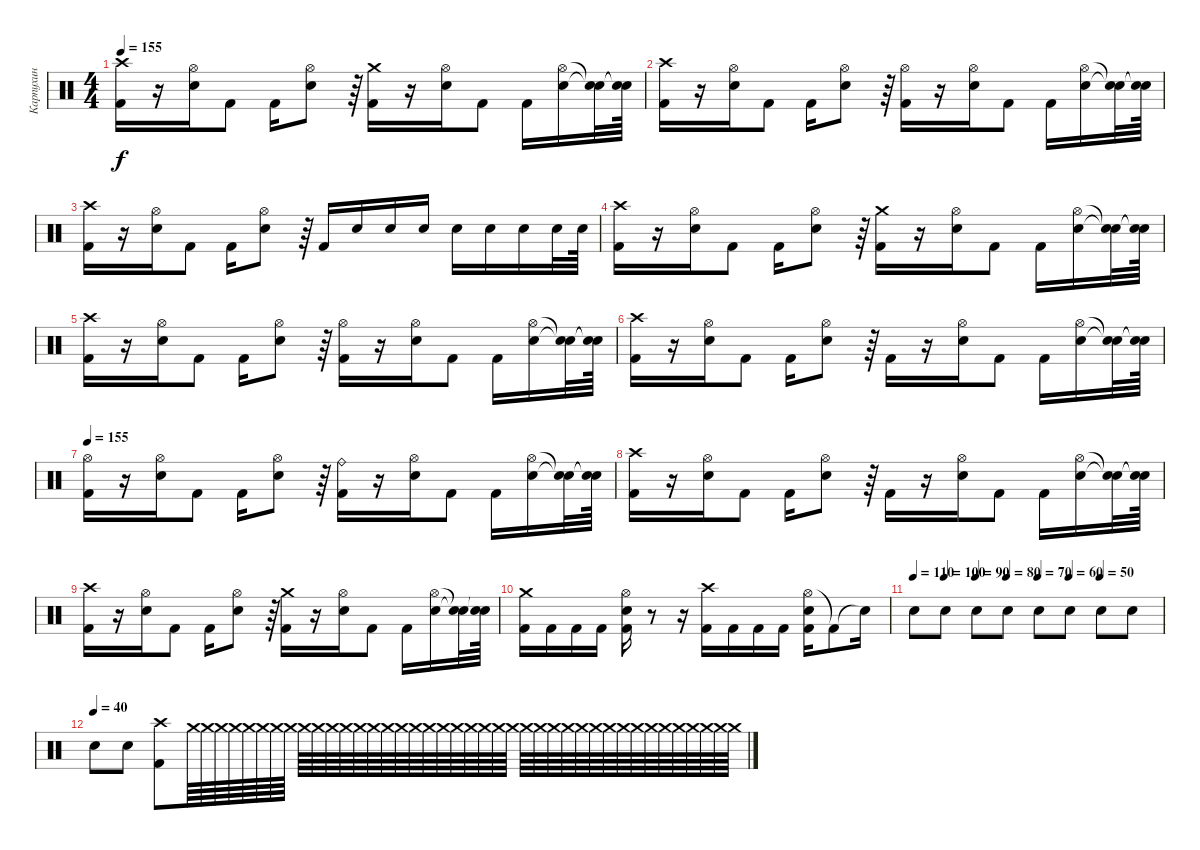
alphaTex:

\track ("Карпухин" "Карпухин") {instrument percussion}
\staff {score}
\articulation defaults
\ts (4 4)
\tempo 155
\clef neutral
\ks c
("Kick (hit) 2" "Crash high (hit)").16{dy f} r.16 ("Electric Snare (hit)" "Hi-Hat (open)").16 "Kick (hit) 2".8 "Kick (hit) 2".16 ("Electric Snare (hit)" "Hi-Hat (open)").8 r.64 ("Crash medium (hit)" "Kick (hit) 2").16 r.16 ("Electric Snare (hit)" "Hi-Hat (open)").16 "Kick (hit) 2".8 "Kick (hit) 2".16 ("Electric Snare (hit)" "Hi-Hat (open)").16 ("Snare (hit)"{t} "Snare (hit)"{t}).32 ("Snare (hit)"{t} "Snare (hit)"{t}).64 |
("Kick (hit) 2" "Crash high (hit)").16 r.16 ("Electric Snare (hit)" "Hi-Hat (open)").16 "Kick (hit) 2".8 "Kick (hit) 2".16 ("Electric Snare (hit)" "Hi-Hat (open)").8 r.64 ("Hi-Hat (open)" "Kick (hit) 2").16 r.16 ("Electric Snare (hit)" "Hi-Hat (open)").16 "Kick (hit) 2".8 "Kick (hit) 2".16 ("Electric Snare (hit)" "Hi-Hat (open)").16 ("Snare (hit)"{t} "Snare (hit)"{t}).32 ("Snare (hit)"{t} "Snare (hit)"{t}).64 |
("Kick (hit) 2" "Crash high (hit)").16 r.16 ("Electric Snare (hit)" "Hi-Hat (open)").16 "Kick (hit) 2".8 "Kick (hit) 2".16 ("Electric Snare (hit)" "Hi-Hat (open)").8 r.64 "Kick (hit) 2".16 "Electric Snare (hit)".16 "Electric Snare (hit)".16 "Electric Snare (hit)".16 "Electric Snare (hit)".16 "Electric Snare (hit)".16 "Electric Snare (hit)".16 "Electric Snare (hit)".32 "Electric Snare (hit)".64 |
("Kick (hit) 2" "Crash high (hit)").16 r.16 ("Electric Snare (hit)" "Hi-Hat (open)").16 "Kick (hit) 2".8 "Kick (hit) 2".16 ("Electric Snare (hit)" "Hi-Hat (open)").8 r.64 ("Crash medium (hit)" "Kick (hit) 2").16 r.16 ("Electric Snare (hit)" "Hi-Hat (open)").16 "Kick (hit) 2".8 "Kick (hit) 2".16 ("Electric Snare (hit)" "Hi-Hat (open)").16 ("Snare (hit)"{t} "Snare (hit)"{t}).32 ("Snare (hit)"{t} "Snare (hit)"{t}).64 |
("Kick (hit) 2" "Crash high (hit)").16 r.16 ("Electric Snare (hit)" "Hi-Hat (open)").16 "Kick (hit) 2".8 "Kick (hit) 2".16 ("Electric Snare (hit)" "Hi-Hat (open)").8 r.64 ("Hi-Hat (open)" "Kick (hit) 2").16 r.16 ("Electric Snare (hit)" "Hi-Hat (open)").16 "Kick (hit) 2".8 "Kick (hit) 2".16 ("Electric Snare (hit)" "Hi-Hat (open)").16 ("Snare (hit)"{t} "Snare (hit)"{t}).32 ("Snare (hit)"{t} "Snare (hit)"{t}).64 |
("Kick (hit) 2" "Crash high (hit)").16 r.16 ("Electric Snare (hit)" "Hi-Hat (open)").16 "Kick (hit) 2".8 "Kick (hit) 2".16 ("Electric Snare (hit)" "Hi-Hat (open)").8 r.64 "Kick (hit) 2".16 r.16 ("Electric Snare (hit)" "Hi-Hat (open)").16 "Kick (hit) 2".8 "Kick (hit) 2".16 ("Electric Snare (hit)" "Hi-Hat (open)").16 ("Snare (hit)"{t} "Snare (hit)"{t}).32 ("Snare (hit)"{t} "Snare (hit)"{t}).64 |
\tempo 155
("Kick (hit) 2" "Hi-Hat (open)").16 r.16 ("Electric Snare (hit)" "Hi-Hat (open)").16 "Kick (hit) 2".8 "Kick (hit) 2".16 ("Electric Snare (hit)" "Hi-Hat (open)").8 r.64 ("Ride (bell)" "Kick (hit) 2").16 r.16 ("Electric Snare (hit)" "Hi-Hat (open)").16 "Kick (hit) 2".8 "Kick (hit) 2".16 ("Electric Snare (hit)" "Hi-Hat (open)").16 ("Snare (hit)"{t} "Snare (hit)"{t}).32 ("Snare (hit)"{t} "Snare (hit)"{t}).64 |
("Kick (hit) 2" "Crash high (hit)").16 r.16 ("Electric Snare (hit)" "Hi-Hat (open)").16 "Kick (hit) 2".8 "Kick (hit) 2".16 ("Electric Snare (hit)" "Hi-Hat (open)").8 r.64 "Kick (hit) 2".16 r.16 ("Electric Snare (hit)" "Hi-Hat (open)").16 "Kick (hit) 2".8 "Kick (hit) 2".16 ("Electric Snare (hit)" "Hi-Hat (open)").16 ("Snare (hit)"{t} "Snare (hit)"{t}).32 ("Snare (hit)"{t} "Snare (hit)"{t}).64 |
("Kick (hit) 2" "Crash high (hit)").16 r.16 ("Electric Snare (hit)" "Hi-Hat (open)").16 "Kick (hit) 2".8 "Kick (hit) 2".16 ("Electric Snare (hit)" "Hi-Hat (open)").8 r.64 ("Crash medium (hit)" "Kick (hit) 2").16 r.16 ("Electric Snare (hit)" "Hi-Hat (open)").16 "Kick (hit) 2".8 "Kick (hit) 2".16 ("Electric Snare (hit)" "Hi-Hat (open)").16 ("Snare (hit)"{t} "Snare (hit)"{t}).32 ("Snare (hit)"{t} "Snare (hit)"{t}).64 |
("Crash medium (hit)" "Kick (hit) 2").16 "Kick (hit) 2".16 "Kick (hit) 2".16 "Kick (hit) 2".16 ("Electric Snare (hit)" "Hi-Hat (open)" "Kick (hit) 2").16 r.8 r.16 ("Crash high (hit)" "Kick (hit) 2").16 "Kick (hit) 2".16 "Kick (hit) 2".16 "Kick (hit) 2".16 ("Hi-Hat (open)" "Electric Snare (hit)" "Kick (hit) 2").16 "Kick (hit) 2"{t}.8 "Snare (hit)"{t}.16 |
\tempo 110
\tempo (100 0.125)
\tempo (90 0.25)
\tempo (80 0.375)
\tempo (70 0.5)
\tempo (60 0.625)
\tempo (50 0.75)
"Electric Snare (hit)".8 "Electric Snare (hit)".8 "Electric Snare (hit)".8 "Electric Snare (hit)".8 "Electric Snare (hit)".8 "Electric Snare (hit)".8 "Electric Snare (hit)".8 "Electric Snare (hit)".8 |
\tempo (40)
"Electric Snare (hit)".8 "Electric Snare (hit)".8 ("Kick (hit) 2" "Crash high (hit)").8 "Crash medium (hit)".64 "Crash medium (hit)".64 "Crash medium (hit)".64 "Crash medium (hit)".64 "Crash medium (hit)".64 "Crash medium (hit)".64 "Crash medium (hit)".64 "Crash medium (hit)".64 "Crash medium (hit)".64 "Crash medium (hit)".64 "Crash medium (hit)".64 "Crash medium (hit)".64 "Crash medium (hit)".64 "Crash medium (hit)".64 "Crash medium (hit)".64 "Crash medium (hit)".64 "Crash medium (hit)".64 "Crash medium (hit)".64 "Crash medium (hit)".64 "Crash medium (hit)".64 "Crash medium (hit)".64 "Crash medium (hit)".64 "Crash medium (hit)".64 "Crash medium (hit)".64 "Crash medium (hit)".64 "Crash medium (hit)".64 "Crash medium (hit)".64 "Crash medium (hit)".64 "Crash medium (hit)".64 "Crash medium (hit)".64 "Crash medium (hit)".64 "Crash medium (hit)".64 "Crash medium (hit)".64 "Crash medium (hit)".64 "Crash medium (hit)".64 "Crash medium (hit)".64 "Crash medium (hit)".64 "Crash medium (hit)".64 "Crash medium (hit)".64 "Crash medium (hit)".64
